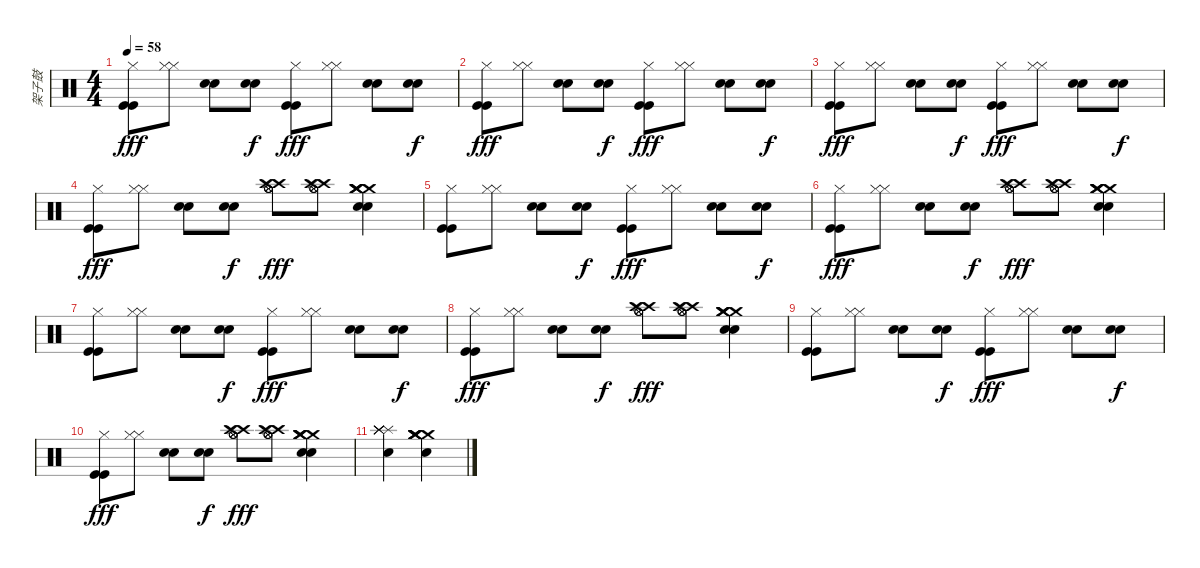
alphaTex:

\track ("架子鼓" "架子鼓") {instrument percussion}
\staff {score}
\articulation defaults
\ts (4 4)
\tempo 58
\clef neutral
\ks c
("Kick (hit)" "Kick (hit)" "Hi-Hat (closed)").8{dy fff} ("Hi-Hat (closed)" "Hi-Hat (closed)").8 ("Snare (hit) 2" "Snare (hit) 2").8 ("Snare (hit) 2" "Snare (hit) 2").8{dy f} ("Kick (hit)" "Kick (hit)" "Hi-Hat (closed)").8{dy fff} ("Hi-Hat (closed)" "Hi-Hat (closed)").8 ("Snare (hit) 2" "Snare (hit) 2").8 ("Snare (hit) 2" "Snare (hit) 2").8{dy f} |
("Kick (hit)" "Kick (hit)" "Hi-Hat (closed)").8{dy fff} ("Hi-Hat (closed)" "Hi-Hat (closed)").8 ("Snare (hit) 2" "Snare (hit) 2").8 ("Snare (hit) 2" "Snare (hit) 2").8{dy f} ("Kick (hit)" "Kick (hit)" "Hi-Hat (closed)").8{dy fff} ("Hi-Hat (closed)" "Hi-Hat (closed)").8 ("Snare (hit) 2" "Snare (hit) 2").8 ("Snare (hit) 2" "Snare (hit) 2").8{dy f} |
("Kick (hit)" "Kick (hit)" "Hi-Hat (closed)").8{dy fff} ("Hi-Hat (closed)" "Hi-Hat (closed)").8 ("Snare (hit) 2" "Snare (hit) 2").8 ("Snare (hit) 2" "Snare (hit) 2").8{dy f} ("Kick (hit)" "Kick (hit)" "Hi-Hat (closed)").8{dy fff} ("Hi-Hat (closed)" "Hi-Hat (closed)").8 ("Snare (hit) 2" "Snare (hit) 2").8 ("Snare (hit) 2" "Snare (hit) 2").8{dy f} |
("Kick (hit)" "Kick (hit)" "Hi-Hat (closed)").8{dy fff} ("Hi-Hat (closed)" "Hi-Hat (closed)").8 ("Snare (hit) 2" "Snare (hit) 2").8 ("Snare (hit) 2" "Snare (hit) 2").8{dy f} ("Crash high (hit)" "Splash (hit)" "Hi-Hat (open)" "Hi-Hat (open)" "Hi-Hat (open)" "Crash high (hit)").8{dy fff} ("Crash high (hit)" "Splash (hit)" "Hi-Hat (open)" "Hi-Hat (open)" "Hi-Hat (open)" "Crash high (hit)").8 ("Crash medium (hit)" "Crash medium (hit)" "Snare (hit) 2" "Snare (hit) 2" "Crash medium (hit)" "Crash medium (hit)").4 |
("Kick (hit)" "Kick (hit)" "Hi-Hat (closed)").8 ("Hi-Hat (closed)" "Hi-Hat (closed)").8 ("Snare (hit) 2" "Snare (hit) 2").8 ("Snare (hit) 2" "Snare (hit) 2").8{dy f} ("Kick (hit)" "Kick (hit)" "Hi-Hat (closed)").8{dy fff} ("Hi-Hat (closed)" "Hi-Hat (closed)").8 ("Snare (hit) 2" "Snare (hit) 2").8 ("Snare (hit) 2" "Snare (hit) 2").8{dy f} |
("Kick (hit)" "Kick (hit)" "Hi-Hat (closed)").8{dy fff} ("Hi-Hat (closed)" "Hi-Hat (closed)").8 ("Snare (hit) 2" "Snare (hit) 2").8 ("Snare (hit) 2" "Snare (hit) 2").8{dy f} ("Crash high (hit)" "Splash (hit)" "Hi-Hat (open)" "Hi-Hat (open)" "Hi-Hat (open)" "Crash high (hit)").8{dy fff} ("Crash high (hit)" "Splash (hit)" "Hi-Hat (open)" "Hi-Hat (open)" "Hi-Hat (open)" "Crash high (hit)").8 ("Crash medium (hit)" "Crash medium (hit)" "Snare (hit) 2" "Snare (hit) 2" "Crash medium (hit)" "Crash medium (hit)").4 |
("Kick (hit)" "Kick (hit)" "Hi-Hat (closed)").8 ("Hi-Hat (closed)" "Hi-Hat (closed)").8 ("Snare (hit) 2" "Snare (hit) 2").8 ("Snare (hit) 2" "Snare (hit) 2").8{dy f} ("Kick (hit)" "Kick (hit)" "Hi-Hat (closed)").8{dy fff} ("Hi-Hat (closed)" "Hi-Hat (closed)").8 ("Snare (hit) 2" "Snare (hit) 2").8 ("Snare (hit) 2" "Snare (hit) 2").8{dy f} |
("Kick (hit)" "Kick (hit)" "Hi-Hat (closed)").8{dy fff} ("Hi-Hat (closed)" "Hi-Hat (closed)").8 ("Snare (hit) 2" "Snare (hit) 2").8 ("Snare (hit) 2" "Snare (hit) 2").8{dy f} ("Crash high (hit)" "Splash (hit)" "Hi-Hat (open)" "Hi-Hat (open)" "Hi-Hat (open)" "Crash high (hit)").8{dy fff} ("Crash high (hit)" "Splash (hit)" "Hi-Hat (open)" "Hi-Hat (open)" "Hi-Hat (open)" "Crash high (hit)").8 ("Crash medium (hit)" "Crash medium (hit)" "Snare (hit) 2" "Snare (hit) 2" "Crash medium (hit)" "Crash medium (hit)").4 |
("Kick (hit)" "Kick (hit)" "Hi-Hat (closed)").8 ("Hi-Hat (closed)" "Hi-Hat (closed)").8 ("Snare (hit) 2" "Snare (hit) 2").8 ("Snare (hit) 2" "Snare (hit) 2").8{dy f} ("Kick (hit)" "Kick (hit)" "Hi-Hat (closed)").8{dy fff} ("Hi-Hat (closed)" "Hi-Hat (closed)").8 ("Snare (hit) 2" "Snare (hit) 2").8 ("Snare (hit) 2" "Snare (hit) 2").8{dy f} |
("Kick (hit)" "Kick (hit)" "Hi-Hat (closed)").8{dy fff} ("Hi-Hat (closed)" "Hi-Hat (closed)").8 ("Snare (hit) 2" "Snare (hit) 2").8 ("Snare (hit) 2" "Snare (hit) 2").8{dy f} ("Crash high (hit)" "Splash (hit)" "Hi-Hat (open)" "Hi-Hat (open)" "Hi-Hat (open)" "Crash high (hit)").8{dy fff} ("Crash high (hit)" "Splash (hit)" "Hi-Hat (open)" "Hi-Hat (open)" "Hi-Hat (open)" "Crash high (hit)").8 ("Crash medium (hit)" "Crash medium (hit)" "Snare (hit) 2" "Snare (hit) 2" "Crash medium (hit)" "Crash medium (hit)").4 |
("Splash (hit)" "Splash (hit)" "Snare (hit) 2" "Splash (hit)" "Splash (hit)" "Splash (hit)").4 ("Crash medium (hit)" "Crash medium (hit)" "Electric Snare (hit)" "Crash medium (hit)" "Crash medium (hit)" "Crash medium (hit)").4
